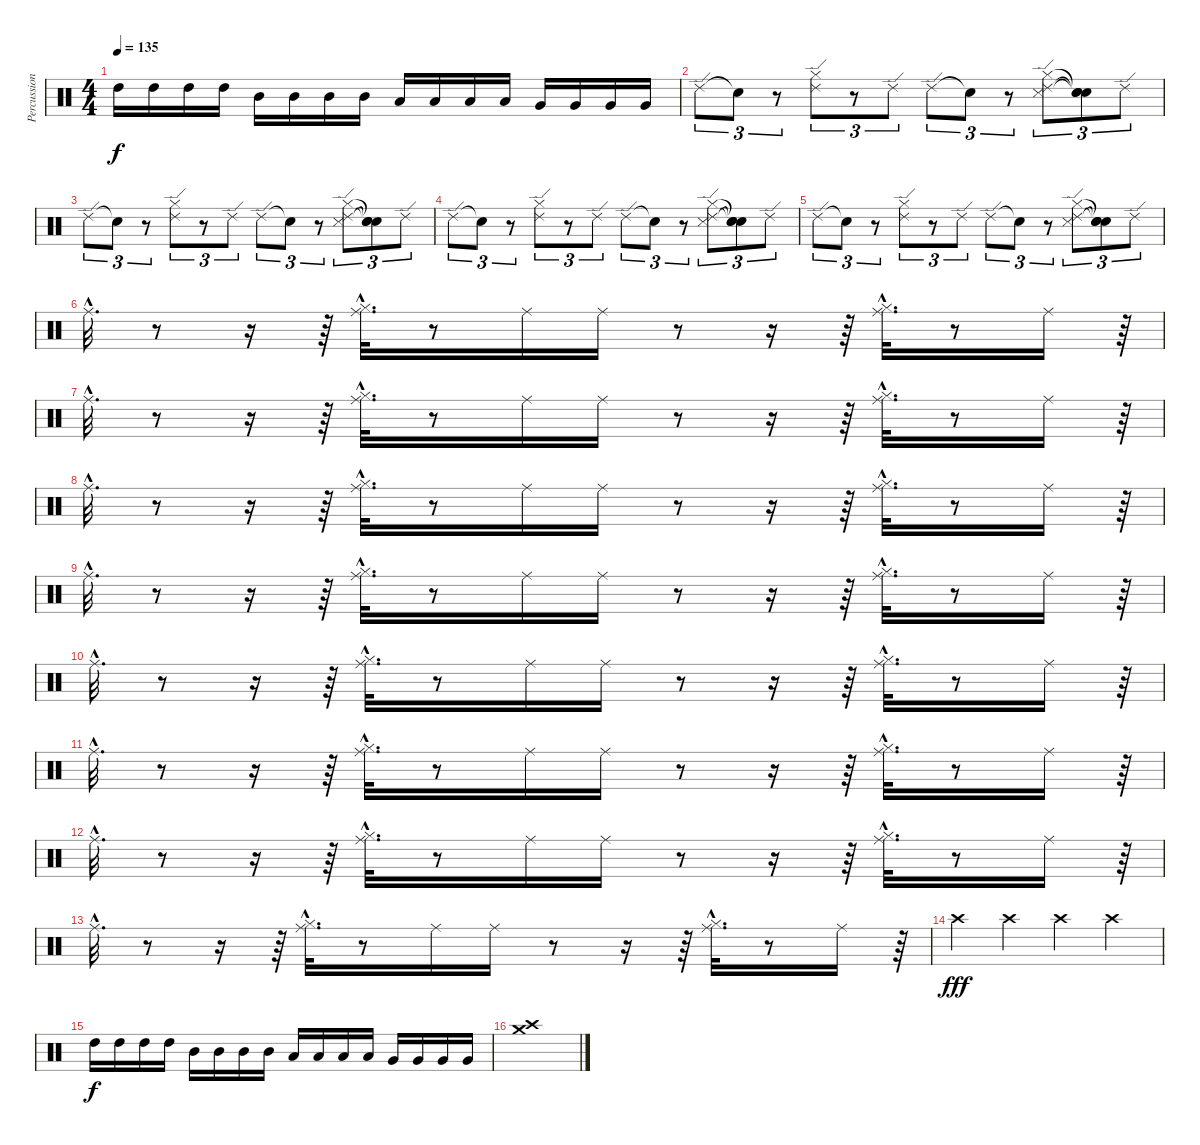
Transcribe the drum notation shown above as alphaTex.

\track ("Percussion" "Percussion") {instrument percussion}
\staff {score}
\articulation defaults
\ts (4 4)
\tempo 135
\clef neutral
\ks c "High Tom (hit)".16{dy f} "High Tom (hit)".16 "High Tom (hit)".16 "High Tom (hit)".16 "Mid Tom (hit)".16 "Mid Tom (hit)".16 "Mid Tom (hit)".16 "Mid Tom (hit)".16 "Low Tom (hit)".16 "Low Tom (hit)".16 "Low Tom (hit)".16 "Low Tom (hit)".16 "Very Low Tom (hit)".16 "Very Low Tom (hit)".16 "Very Low Tom (hit)".16 "Very Low Tom (hit)".16
|
"Ride (edge) 2".8{tu (3 2)} "Snare (hit)"{t}.8{tu (3 2)} r.8{tu (3 2)} ("Ride (edge) 2" "Hi-Hat (closed)").8{tu (3 2)} r.8{tu (3 2)} "Ride (edge) 2".8{tu (3 2)} "Ride (edge) 2".8{tu (3 2)} "Snare (hit)"{t}.8{tu (3 2)} r.8{tu (3 2)} ("Ride (edge) 2" "Snare (side stick) 3" "Hi-Hat (closed)").8{tu (3 2)} ("Snare (hit)"{t} "Snare (hit)"{t} "Snare (hit)"{t}).8{tu (3 2)} "Ride (edge) 2".8{tu (3 2)} |
"Ride (edge) 2".8{tu (3 2)} "Snare (hit)"{t}.8{tu (3 2)} r.8{tu (3 2)} ("Ride (edge) 2" "Hi-Hat (closed)").8{tu (3 2)} r.8{tu (3 2)} "Ride (edge) 2".8{tu (3 2)} "Ride (edge) 2".8{tu (3 2)} "Snare (hit)"{t}.8{tu (3 2)} r.8{tu (3 2)} ("Ride (edge) 2" "Snare (side stick) 3" "Hi-Hat (closed)").8{tu (3 2)} ("Snare (hit)"{t} "Snare (hit)"{t} "Snare (hit)"{t}).8{tu (3 2)} "Ride (edge) 2".8{tu (3 2)} |
"Ride (edge) 2".8{tu (3 2)} "Snare (hit)"{t}.8{tu (3 2)} r.8{tu (3 2)} ("Ride (edge) 2" "Hi-Hat (closed)").8{tu (3 2)} r.8{tu (3 2)} "Ride (edge) 2".8{tu (3 2)} "Ride (edge) 2".8{tu (3 2)} "Snare (hit)"{t}.8{tu (3 2)} r.8{tu (3 2)} ("Ride (edge) 2" "Snare (side stick) 3" "Hi-Hat (closed)").8{tu (3 2)} ("Snare (hit)"{t} "Snare (hit)"{t} "Snare (hit)"{t}).8{tu (3 2)} "Ride (edge) 2".8{tu (3 2)} |
"Ride (edge) 2".8{tu (3 2)} "Snare (hit)"{t}.8{tu (3 2)} r.8{tu (3 2)} ("Ride (edge) 2" "Hi-Hat (closed)").8{tu (3 2)} r.8{tu (3 2)} "Ride (edge) 2".8{tu (3 2)} "Ride (edge) 2".8{tu (3 2)} "Snare (hit)"{t}.8{tu (3 2)} r.8{tu (3 2)} ("Ride (edge) 2" "Snare (side stick) 3" "Hi-Hat (closed)").8{tu (3 2)} ("Snare (hit)"{t} "Snare (hit)"{t} "Snare (hit)"{t}).8{tu (3 2)} "Ride (edge) 2".8{tu (3 2)} |
"Ride (middle)"{hac}.32{d} r.8 r.16 r.64 ("Hi-Hat (closed)"{hac} "Ride (middle)"{hac}).32{d} r.8 "Ride (middle)".16 "Ride (middle)".16 r.8 r.16 r.64 ("Hi-Hat (closed)"{hac} "Ride (middle)"{hac}).32{d} r.8 "Ride (middle)".16 r.64 |
"Ride (middle)"{hac}.32{d} r.8 r.16 r.64 ("Hi-Hat (closed)"{hac} "Ride (middle)"{hac}).32{d} r.8 "Ride (middle)".16 "Ride (middle)".16 r.8 r.16 r.64 ("Hi-Hat (closed)"{hac} "Ride (middle)"{hac}).32{d} r.8 "Ride (middle)".16 r.64 |
"Ride (middle)"{hac}.32{d} r.8 r.16 r.64 ("Hi-Hat (closed)"{hac} "Ride (middle)"{hac}).32{d} r.8 "Ride (middle)".16 "Ride (middle)".16 r.8 r.16 r.64 ("Hi-Hat (closed)"{hac} "Ride (middle)"{hac}).32{d} r.8 "Ride (middle)".16 r.64 |
"Ride (middle)"{hac}.32{d} r.8 r.16 r.64 ("Hi-Hat (closed)"{hac} "Ride (middle)"{hac}).32{d} r.8 "Ride (middle)".16 "Ride (middle)".16 r.8 r.16 r.64 ("Hi-Hat (closed)"{hac} "Ride (middle)"{hac}).32{d} r.8 "Ride (middle)".16 r.64 |
"Ride (middle)"{hac}.32{d} r.8 r.16 r.64 ("Hi-Hat (closed)"{hac} "Ride (middle)"{hac}).32{d} r.8 "Ride (middle)".16 "Ride (middle)".16 r.8 r.16 r.64 ("Hi-Hat (closed)"{hac} "Ride (middle)"{hac}).32{d} r.8 "Ride (middle)".16 r.64 |
"Ride (middle)"{hac}.32{d} r.8 r.16 r.64 ("Hi-Hat (closed)"{hac} "Ride (middle)"{hac}).32{d} r.8 "Ride (middle)".16 "Ride (middle)".16 r.8 r.16 r.64 ("Hi-Hat (closed)"{hac} "Ride (middle)"{hac}).32{d} r.8 "Ride (middle)".16 r.64 |
"Ride (middle)"{hac}.32{d} r.8 r.16 r.64 ("Hi-Hat (closed)"{hac} "Ride (middle)"{hac}).32{d} r.8 "Ride (middle)".16 "Ride (middle)".16 r.8 r.16 r.64 ("Hi-Hat (closed)"{hac} "Ride (middle)"{hac}).32{d} r.8 "Ride (middle)".16 r.64 |
"Ride (middle)"{hac}.32{d} r.8 r.16 r.64 ("Hi-Hat (closed)"{hac} "Ride (middle)"{hac}).32{d} r.8 "Ride (middle)".16 "Ride (middle)".16 r.8 r.16 r.64 ("Hi-Hat (closed)"{hac} "Ride (middle)"{hac}).32{d} r.8 "Ride (middle)".16 r.64 |
"Crash high (hit)".4{dy fff} "Crash high (hit)".4 "Crash high (hit)".4 "Crash high (hit)".4 |
"High Tom (hit)".16{dy f} "High Tom (hit)".16 "High Tom (hit)".16 "High Tom (hit)".16 "Mid Tom (hit)".16 "Mid Tom (hit)".16 "Mid Tom (hit)".16 "Mid Tom (hit)".16 "Low Tom (hit)".16 "Low Tom (hit)".16 "Low Tom (hit)".16 "Low Tom (hit)".16 "Very Low Tom (hit)".16 "Very Low Tom (hit)".16 "Very Low Tom (hit)".16 "Very Low Tom (hit)".16 |
("Crash medium (hit)" "Crash high (hit)").1
